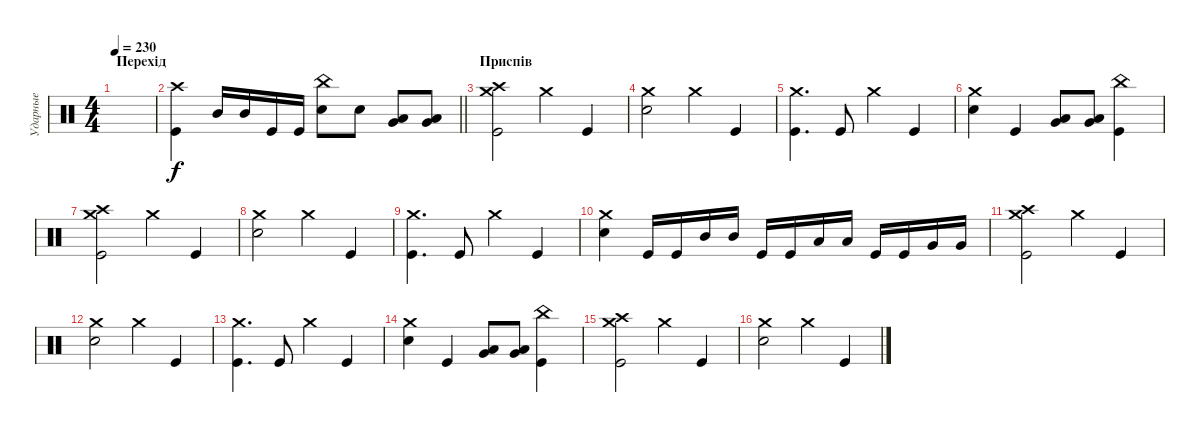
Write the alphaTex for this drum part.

\track ("Ударные" "Ударные") {instrument percussion}
\staff {score}
\articulation defaults
\ts (4 4)
\section ("" "Перехід")
\tempo 230
\clef neutral
\ks c
|
\barLineRight lightlight
("Crash high (hit)" "Kick (hit)").4 "Mid Tom (hit)".16 "Mid Tom (hit)".16 "Kick (hit)".16 "Kick (hit)".16 ("Electric Snare (hit)" "China (hit)").8 "Electric Snare (hit)".8 ("Low Tom (hit)" "Very Low Tom (hit)").8 ("Low Tom (hit)" "Very Low Tom (hit)").8 |
\section ("" "Приспів")
("Crash medium (hit)" "Crash high (hit)" "Kick (hit)").2 "Crash medium (hit)".4 "Kick (hit)".4 |
("Electric Snare (hit)" "Crash medium (hit)").2 "Crash medium (hit)".4 "Kick (hit)".4 |
("Crash medium (hit)" "Kick (hit)").4{d} "Kick (hit)".8 "Crash medium (hit)".4 "Kick (hit)".4 |
("Electric Snare (hit)" "Crash medium (hit)").4 "Kick (hit)".4 ("Low Tom (hit)" "Very Low Tom (hit)").8 ("Very Low Tom (hit)" "Low Tom (hit)").8 ("China (hit)" "Kick (hit)").4 |
("Crash medium (hit)" "Crash high (hit)" "Kick (hit)").2 "Crash medium (hit)".4 "Kick (hit)".4 |
("Electric Snare (hit)" "Crash medium (hit)").2 "Crash medium (hit)".4 "Kick (hit)".4 |
("Crash medium (hit)" "Kick (hit)").4{d} "Kick (hit)".8 "Crash medium (hit)".4 "Kick (hit)".4 |
("Electric Snare (hit)" "Crash medium (hit)").4 "Kick (hit)".16 "Kick (hit)".16 "Mid Tom (hit)".16 "Mid Tom (hit)".16 "Kick (hit)".16 "Kick (hit)".16 "Low Tom (hit)".16 "Low Tom (hit)".16 "Kick (hit)".16 "Kick (hit)".16 "Very Low Tom (hit)".16 "Very Low Tom (hit)".16 |
("Crash medium (hit)" "Crash high (hit)" "Kick (hit)").2 "Crash medium (hit)".4 "Kick (hit)".4 |
("Electric Snare (hit)" "Crash medium (hit)").2 "Crash medium (hit)".4 "Kick (hit)".4 |
("Crash medium (hit)" "Kick (hit)").4{d} "Kick (hit)".8 "Crash medium (hit)".4 "Kick (hit)".4 |
("Electric Snare (hit)" "Crash medium (hit)").4 "Kick (hit)".4 ("Low Tom (hit)" "Very Low Tom (hit)").8 ("Very Low Tom (hit)" "Low Tom (hit)").8 ("China (hit)" "Kick (hit)").4 |
("Crash medium (hit)" "Crash high (hit)" "Kick (hit)").2 "Crash medium (hit)".4 "Kick (hit)".4 |
("Electric Snare (hit)" "Crash medium (hit)").2 "Crash medium (hit)".4 "Kick (hit)".4
